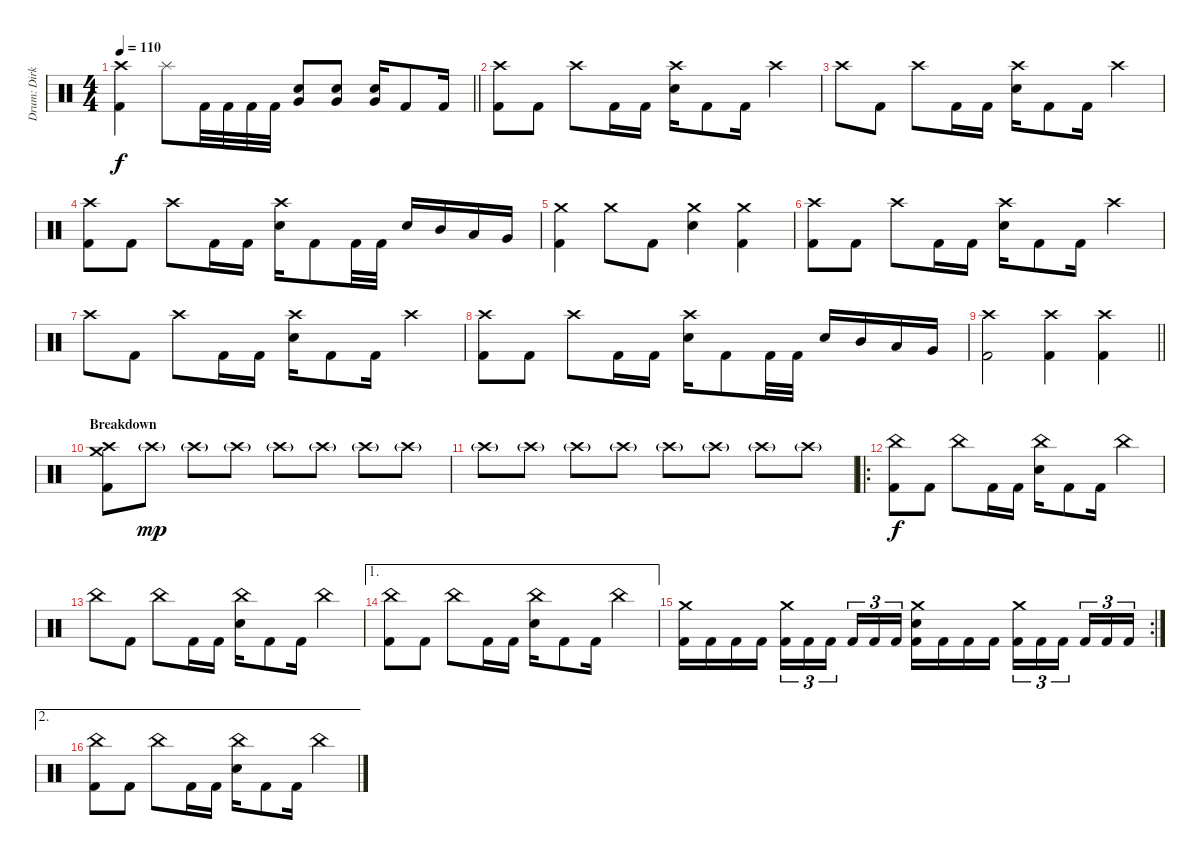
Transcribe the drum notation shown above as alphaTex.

\track ("Drum: Dirk" "Drum: Dirk") {instrument percussion}
\staff {score}
\articulation defaults
\ts (4 4)
\tempo 110
\clef neutral
\barLineRight lightlight
\ks c
("Crash high (hit)" "Kick (hit) 2").4{dy f} "Splash (hit)".8 "Kick (hit) 2".32 "Kick (hit) 2".32 "Kick (hit) 2".32 "Kick (hit) 2".32 ("Electric Snare (hit)" "Very Low Tom (hit)").8 ("Electric Snare (hit)" "Very Low Tom (hit)").8 ("Electric Snare (hit)" "Very Low Tom (hit)").16 "Kick (hit) 2".8 "Kick (hit) 2".16 |
\section ("" "")
("Crash high (hit)" "Kick (hit) 2").8 "Kick (hit) 2".8 "Crash high (hit)".8 "Kick (hit) 2".16 "Kick (hit) 2".16 ("Crash high (hit)" "Electric Snare (hit)").16 "Kick (hit) 2".8 "Kick (hit) 2".16 "Crash high (hit)".4 |
"Crash high (hit)".8 "Kick (hit) 2".8 "Crash high (hit)".8 "Kick (hit) 2".16 "Kick (hit) 2".16 ("Crash high (hit)" "Electric Snare (hit)").16 "Kick (hit) 2".8 "Kick (hit) 2".16 "Crash high (hit)".4 |
("Crash high (hit)" "Kick (hit) 2").8 "Kick (hit) 2".8 "Crash high (hit)".8 "Kick (hit) 2".16 "Kick (hit) 2".16 ("Crash high (hit)" "Electric Snare (hit)").16 "Kick (hit) 2".8 "Kick (hit) 2".32 "Kick (hit) 2".32 "Electric Snare (hit)".16 "Mid Tom (hit)".16 "Low Tom (hit)".16 "Very Low Tom (hit)".16 |
("Crash medium (hit)" "Kick (hit) 2").4 "Crash medium (hit)".8 "Kick (hit) 2".8 ("Crash medium (hit)" "Electric Snare (hit)").4 ("Crash medium (hit)" "Kick (hit) 2").4 |
("Crash high (hit)" "Kick (hit) 2").8 "Kick (hit) 2".8 "Crash high (hit)".8 "Kick (hit) 2".16 "Kick (hit) 2".16 ("Crash high (hit)" "Electric Snare (hit)").16 "Kick (hit) 2".8 "Kick (hit) 2".16 "Crash high (hit)".4 |
"Crash high (hit)".8 "Kick (hit) 2".8 "Crash high (hit)".8 "Kick (hit) 2".16 "Kick (hit) 2".16 ("Crash high (hit)" "Electric Snare (hit)").16 "Kick (hit) 2".8 "Kick (hit) 2".16 "Crash high (hit)".4 |
("Crash high (hit)" "Kick (hit) 2").8 "Kick (hit) 2".8 "Crash high (hit)".8 "Kick (hit) 2".16 "Kick (hit) 2".16 ("Crash high (hit)" "Electric Snare (hit)").16 "Kick (hit) 2".8 "Kick (hit) 2".32 "Kick (hit) 2".32 "Electric Snare (hit)".16 "Mid Tom (hit)".16 "Low Tom (hit)".16 "Very Low Tom (hit)".16 |
\barLineRight lightlight
("Crash high (hit)" "Kick (hit) 2").2 ("Crash high (hit)" "Kick (hit) 2").4 ("Crash high (hit)" "Kick (hit) 2").4 |
\section ("" "Breakdown")
("Crash medium (hit)" "Crash high (hit)" "Kick (hit) 2").8 "Crash high (hit)"{g}.8{dy mp} "Crash high (hit)"{g}.8 "Crash high (hit)"{g}.8 "Crash high (hit)"{g}.8 "Crash high (hit)"{g}.8 "Crash high (hit)"{g}.8 "Crash high (hit)"{g}.8 |
"Crash high (hit)"{g}.8 "Crash high (hit)"{g}.8 "Crash high (hit)"{g}.8 "Crash high (hit)"{g}.8 "Crash high (hit)"{g}.8 "Crash high (hit)"{g}.8 "Crash high (hit)"{g}.8 "Crash high (hit)"{g}.8 |
\ro
("China (hit)" "Kick (hit) 2").8{dy f} "Kick (hit) 2".8 "China (hit)".8 "Kick (hit) 2".16 "Kick (hit) 2".16 ("China (hit)" "Electric Snare (hit)").16 "Kick (hit) 2".8 "Kick (hit) 2".16 "China (hit)".4 |
"China (hit)".8 "Kick (hit) 2".8 "China (hit)".8 "Kick (hit) 2".16 "Kick (hit) 2".16 ("China (hit)" "Electric Snare (hit)").16 "Kick (hit) 2".8 "Kick (hit) 2".16 "China (hit)".4 |
\ae 1
("China (hit)" "Kick (hit) 2").8 "Kick (hit) 2".8 "China (hit)".8 "Kick (hit) 2".16 "Kick (hit) 2".16 ("China (hit)" "Electric Snare (hit)").16 "Kick (hit) 2".8 "Kick (hit) 2".16 "China (hit)".4 |
\rc 2
("Crash medium (hit)" "Kick (hit) 2").16 "Kick (hit) 2".16 "Kick (hit) 2".16 "Kick (hit) 2".16 ("Crash medium (hit)" "Kick (hit) 2").16{tu (3 2)} "Kick (hit) 2".16{tu (3 2)} "Kick (hit) 2".16{tu (3 2) beam splitsecondary} "Kick (hit) 2".16{tu (3 2)} "Kick (hit) 2".16{tu (3 2)} "Kick (hit) 2".16{tu (3 2)} ("Crash medium (hit)" "Electric Snare (hit)" "Kick (hit) 2").16 "Kick (hit) 2".16 "Kick (hit) 2".16 "Kick (hit) 2".16 ("Crash medium (hit)" "Kick (hit) 2").16{tu (3 2)} "Kick (hit) 2".16{tu (3 2)} "Kick (hit) 2".16{tu (3 2) beam splitsecondary} "Kick (hit) 2".16{tu (3 2)} "Kick (hit) 2".16{tu (3 2)} "Kick (hit) 2".16{tu (3 2)} |
\ae 2
("China (hit)" "Kick (hit) 2").8 "Kick (hit) 2".8 "China (hit)".8 "Kick (hit) 2".16 "Kick (hit) 2".16 ("China (hit)" "Electric Snare (hit)").16 "Kick (hit) 2".8 "Kick (hit) 2".16 "China (hit)".4
